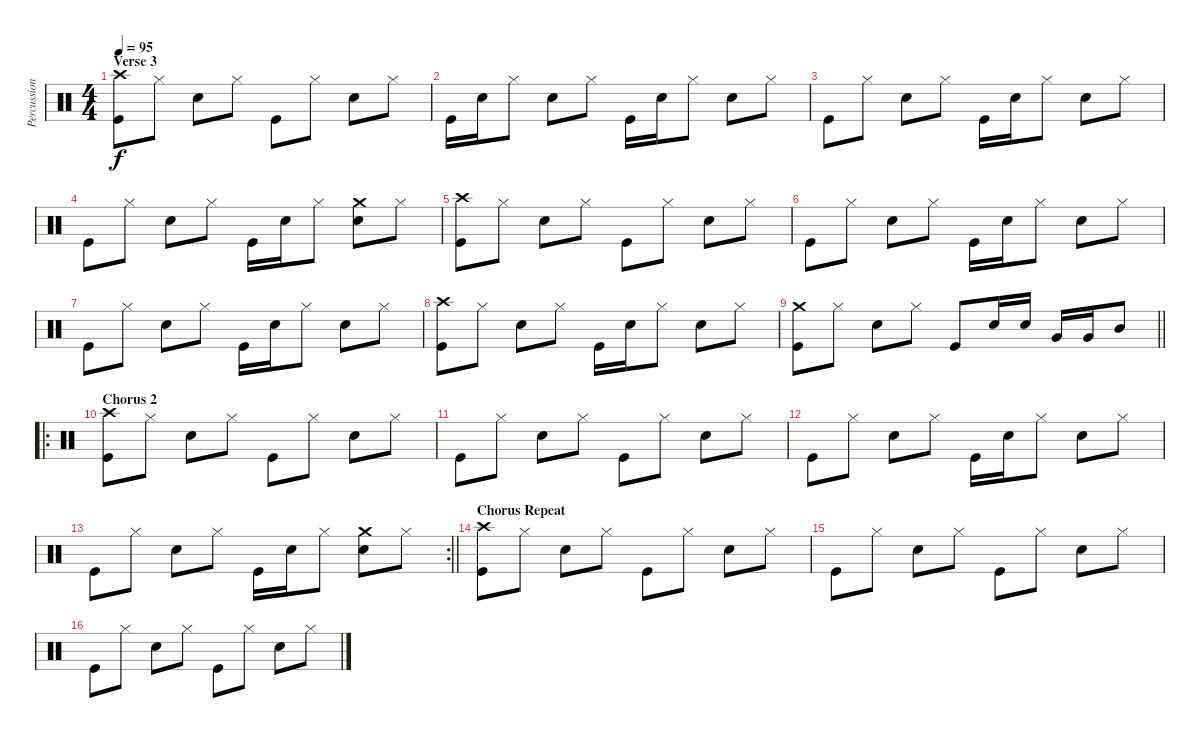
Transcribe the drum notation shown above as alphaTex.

\track ("Percussion" "Percussion") {instrument percussion}
\staff {score}
\articulation defaults
\ts (4 4)
\section ("" "Verse 3")
\tempo 95
\clef neutral
\ks c
("Kick (hit)" "Crash high (hit)").8{dy f} "Hi-Hat (closed)".8 "Snare (hit) 2".8 "Hi-Hat (closed)".8 "Kick (hit)".8 "Hi-Hat (closed)".8 "Snare (hit) 2".8 "Hi-Hat (closed)".8 |
"Kick (hit)".16 "Snare (hit) 2".16 "Hi-Hat (closed)".8 "Snare (hit) 2".8 "Hi-Hat (closed)".8 "Kick (hit)".16 "Snare (hit) 2".16 "Hi-Hat (closed)".8 "Snare (hit) 2".8 "Hi-Hat (closed)".8 |
"Kick (hit)".8 "Hi-Hat (closed)".8 "Snare (hit) 2".8 "Hi-Hat (closed)".8 "Kick (hit)".16 "Snare (hit) 2".16 "Hi-Hat (closed)".8 "Snare (hit) 2".8 "Hi-Hat (closed)".8 |
"Kick (hit)".8 "Hi-Hat (closed)".8 "Snare (hit) 2".8 "Hi-Hat (closed)".8 "Kick (hit)".16 "Snare (hit) 2".16 "Hi-Hat (closed)".8 ("Crash medium (hit)" "Snare (hit) 2").8 "Hi-Hat (closed)".8 |
("Kick (hit)" "Crash high (hit)").8 "Hi-Hat (closed)".8 "Snare (hit) 2".8 "Hi-Hat (closed)".8 "Kick (hit)".8 "Hi-Hat (closed)".8 "Snare (hit) 2".8 "Hi-Hat (closed)".8 |
"Kick (hit)".8 "Hi-Hat (closed)".8 "Snare (hit) 2".8 "Hi-Hat (closed)".8 "Kick (hit)".16 "Snare (hit) 2".16 "Hi-Hat (closed)".8 "Snare (hit) 2".8 "Hi-Hat (closed)".8 |
"Kick (hit)".8 "Hi-Hat (closed)".8 "Snare (hit) 2".8 "Hi-Hat (closed)".8 "Kick (hit)".16 "Snare (hit) 2".16 "Hi-Hat (closed)".8 "Snare (hit) 2".8 "Hi-Hat (closed)".8 |
("Kick (hit)" "Crash high (hit)").8 "Hi-Hat (closed)".8 "Snare (hit) 2".8 "Hi-Hat (closed)".8 "Kick (hit)".16 "Snare (hit) 2".16 "Hi-Hat (closed)".8 "Snare (hit) 2".8 "Hi-Hat (closed)".8 |
\barLineRight lightlight
("Kick (hit)" "Crash medium (hit)").8 "Hi-Hat (closed)".8 "Snare (hit) 2".8 "Hi-Hat (closed)".8 "Kick (hit)".8 "Snare (hit) 2".16 "Snare (hit) 2".16 "Very Low Tom (hit)".16 "Very Low Tom (hit)".16 "Mid Tom (hit)".8 |
\ro
\section ("" "Chorus 2")
("Kick (hit)" "Crash high (hit)").8 "Hi-Hat (closed)".8 "Snare (hit) 2".8 "Hi-Hat (closed)".8 "Kick (hit)".8 "Hi-Hat (closed)".8 "Snare (hit) 2".8 "Hi-Hat (closed)".8 |
"Kick (hit)".8 "Hi-Hat (closed)".8 "Snare (hit) 2".8 "Hi-Hat (closed)".8 "Kick (hit)".8 "Hi-Hat (closed)".8 "Snare (hit) 2".8 "Hi-Hat (closed)".8 |
"Kick (hit)".8 "Hi-Hat (closed)".8 "Snare (hit) 2".8 "Hi-Hat (closed)".8 "Kick (hit)".16 "Snare (hit) 2".16 "Hi-Hat (closed)".8 "Snare (hit) 2".8 "Hi-Hat (closed)".8 |
\rc 2
\barLineRight lightlight "Kick (hit)".8 "Hi-Hat (closed)".8 "Snare (hit) 2".8 "Hi-Hat (closed)".8 "Kick (hit)".16 "Snare (hit) 2".16 "Hi-Hat (closed)".8
("Crash medium (hit)" "Snare (hit) 2").8 "Hi-Hat (closed)".8 |
\section ("" "Chorus Repeat")
("Kick (hit)" "Crash high (hit)").8 "Hi-Hat (closed)".8 "Snare (hit) 2".8 "Hi-Hat (closed)".8 "Kick (hit)".8 "Hi-Hat (closed)".8 "Snare (hit) 2".8 "Hi-Hat (closed)".8 |
"Kick (hit)".8 "Hi-Hat (closed)".8 "Snare (hit) 2".8 "Hi-Hat (closed)".8 "Kick (hit)".8 "Hi-Hat (closed)".8 "Snare (hit) 2".8 "Hi-Hat (closed)".8 |
"Kick (hit)".8 "Hi-Hat (closed)".8 "Snare (hit) 2".8 "Hi-Hat (closed)".8 "Kick (hit)".8 "Hi-Hat (closed)".8 "Snare (hit) 2".8 "Hi-Hat (closed)".8
